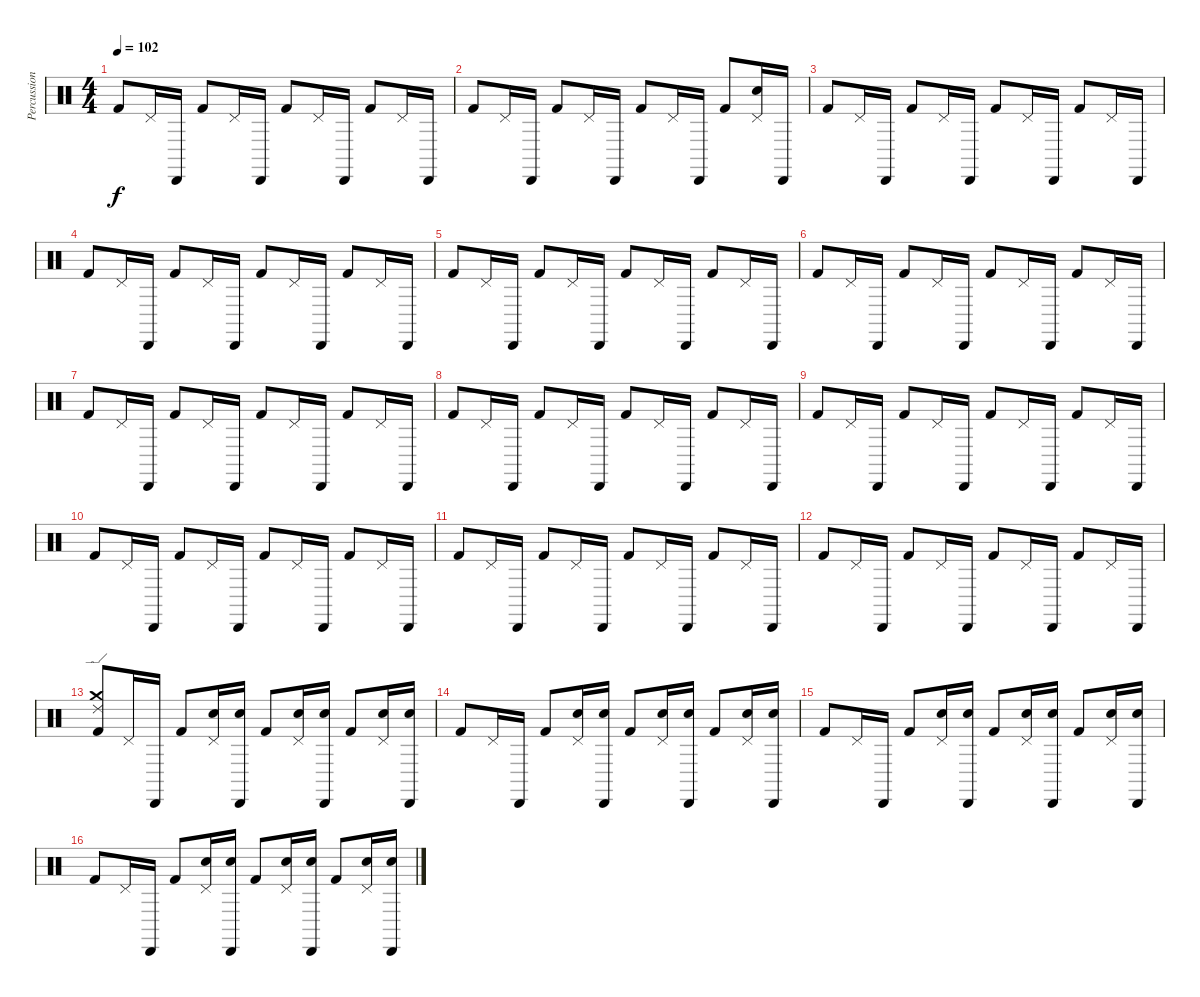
\track ("Percussions" "Percussion") {instrument percussion}
\staff {score}
\articulation defaults
\ts (4 4)
\tempo 102
\clef neutral
\ks c "Kick (hit) 2".8{dy f} "Pedal Hi-Hat (hit)".16 "Cabasa (hit)".16 "Kick (hit) 2".8 "Pedal Hi-Hat (hit)".16 "Cabasa (hit)".16 "Kick (hit) 2".8 "Pedal Hi-Hat (hit)".16 "Cabasa (hit)".16 "Kick (hit) 2".8 "Pedal Hi-Hat (hit)".16 "Cabasa (hit)".16
|
"Kick (hit) 2".8 "Pedal Hi-Hat (hit)".16 "Cabasa (hit)".16 "Kick (hit) 2".8 "Pedal Hi-Hat (hit)".16 "Cabasa (hit)".16 "Kick (hit) 2".8 "Pedal Hi-Hat (hit)".16 "Cabasa (hit)".16 "Kick (hit) 2".8 ("Snare (hit) 2" "Pedal Hi-Hat (hit)").16 "Cabasa (hit)".16 |
"Kick (hit) 2".8 "Pedal Hi-Hat (hit)".16 "Cabasa (hit)".16 "Kick (hit) 2".8 "Pedal Hi-Hat (hit)".16 "Cabasa (hit)".16 "Kick (hit) 2".8 "Pedal Hi-Hat (hit)".16 "Cabasa (hit)".16 "Kick (hit) 2".8 "Pedal Hi-Hat (hit)".16 "Cabasa (hit)".16 |
"Kick (hit) 2".8 "Pedal Hi-Hat (hit)".16 "Cabasa (hit)".16 "Kick (hit) 2".8 "Pedal Hi-Hat (hit)".16 "Cabasa (hit)".16 "Kick (hit) 2".8 "Pedal Hi-Hat (hit)".16 "Cabasa (hit)".16 "Kick (hit) 2".8 "Pedal Hi-Hat (hit)".16 "Cabasa (hit)".16 |
"Kick (hit) 2".8 "Pedal Hi-Hat (hit)".16 "Cabasa (hit)".16 "Kick (hit) 2".8 "Pedal Hi-Hat (hit)".16 "Cabasa (hit)".16 "Kick (hit) 2".8 "Pedal Hi-Hat (hit)".16 "Cabasa (hit)".16 "Kick (hit) 2".8 "Pedal Hi-Hat (hit)".16 "Cabasa (hit)".16 |
"Kick (hit) 2".8 "Pedal Hi-Hat (hit)".16 "Cabasa (hit)".16 "Kick (hit) 2".8 "Pedal Hi-Hat (hit)".16 "Cabasa (hit)".16 "Kick (hit) 2".8 "Pedal Hi-Hat (hit)".16 "Cabasa (hit)".16 "Kick (hit) 2".8 "Pedal Hi-Hat (hit)".16 "Cabasa (hit)".16 |
"Kick (hit) 2".8 "Pedal Hi-Hat (hit)".16 "Cabasa (hit)".16 "Kick (hit) 2".8 "Pedal Hi-Hat (hit)".16 "Cabasa (hit)".16 "Kick (hit) 2".8 "Pedal Hi-Hat (hit)".16 "Cabasa (hit)".16 "Kick (hit) 2".8 "Pedal Hi-Hat (hit)".16 "Cabasa (hit)".16 |
"Kick (hit) 2".8 "Pedal Hi-Hat (hit)".16 "Cabasa (hit)".16 "Kick (hit) 2".8 "Pedal Hi-Hat (hit)".16 "Cabasa (hit)".16 "Kick (hit) 2".8 "Pedal Hi-Hat (hit)".16 "Cabasa (hit)".16 "Kick (hit) 2".8 "Pedal Hi-Hat (hit)".16 "Cabasa (hit)".16 |
"Kick (hit) 2".8 "Pedal Hi-Hat (hit)".16 "Cabasa (hit)".16 "Kick (hit) 2".8 "Pedal Hi-Hat (hit)".16 "Cabasa (hit)".16 "Kick (hit) 2".8 "Pedal Hi-Hat (hit)".16 "Cabasa (hit)".16 "Kick (hit) 2".8 "Pedal Hi-Hat (hit)".16 "Cabasa (hit)".16 |
"Kick (hit) 2".8 "Pedal Hi-Hat (hit)".16 "Cabasa (hit)".16 "Kick (hit) 2".8 "Pedal Hi-Hat (hit)".16 "Cabasa (hit)".16 "Kick (hit) 2".8 "Pedal Hi-Hat (hit)".16 "Cabasa (hit)".16 "Kick (hit) 2".8 "Pedal Hi-Hat (hit)".16 "Cabasa (hit)".16 |
"Kick (hit) 2".8 "Pedal Hi-Hat (hit)".16 "Cabasa (hit)".16 "Kick (hit) 2".8 "Pedal Hi-Hat (hit)".16 "Cabasa (hit)".16 "Kick (hit) 2".8 "Pedal Hi-Hat (hit)".16 "Cabasa (hit)".16 "Kick (hit) 2".8 "Pedal Hi-Hat (hit)".16 "Cabasa (hit)".16 |
"Kick (hit) 2".8 "Pedal Hi-Hat (hit)".16 "Cabasa (hit)".16 "Kick (hit) 2".8 "Pedal Hi-Hat (hit)".16 "Cabasa (hit)".16 "Kick (hit) 2".8 "Pedal Hi-Hat (hit)".16 "Cabasa (hit)".16 "Kick (hit) 2".8 "Pedal Hi-Hat (hit)".16 "Cabasa (hit)".16 |
("Ride (edge) 2" "Crash medium (hit)" "Kick (hit) 2").8 "Pedal Hi-Hat (hit)".16 "Cabasa (hit)".16 "Kick (hit) 2".8 ("Snare (hit) 2" "Pedal Hi-Hat (hit)").16 ("Snare (hit) 2" "Cabasa (hit)").16 "Kick (hit) 2".8 ("Snare (hit) 2" "Pedal Hi-Hat (hit)").16 ("Snare (hit) 2" "Cabasa (hit)").16 "Kick (hit) 2".8 ("Snare (hit) 2" "Pedal Hi-Hat (hit)").16 ("Snare (hit) 2" "Cabasa (hit)").16 |
"Kick (hit) 2".8 "Pedal Hi-Hat (hit)".16 "Cabasa (hit)".16 "Kick (hit) 2".8 ("Snare (hit) 2" "Pedal Hi-Hat (hit)").16 ("Snare (hit) 2" "Cabasa (hit)").16 "Kick (hit) 2".8 ("Snare (hit) 2" "Pedal Hi-Hat (hit)").16 ("Snare (hit) 2" "Cabasa (hit)").16 "Kick (hit) 2".8 ("Snare (hit) 2" "Pedal Hi-Hat (hit)").16 ("Snare (hit) 2" "Cabasa (hit)").16 |
"Kick (hit) 2".8 "Pedal Hi-Hat (hit)".16 "Cabasa (hit)".16 "Kick (hit) 2".8 ("Snare (hit) 2" "Pedal Hi-Hat (hit)").16 ("Snare (hit) 2" "Cabasa (hit)").16 "Kick (hit) 2".8 ("Snare (hit) 2" "Pedal Hi-Hat (hit)").16 ("Snare (hit) 2" "Cabasa (hit)").16 "Kick (hit) 2".8 ("Snare (hit) 2" "Pedal Hi-Hat (hit)").16 ("Snare (hit) 2" "Cabasa (hit)").16 |
"Kick (hit) 2".8 "Pedal Hi-Hat (hit)".16 "Cabasa (hit)".16 "Kick (hit) 2".8 ("Snare (hit) 2" "Pedal Hi-Hat (hit)").16 ("Snare (hit) 2" "Cabasa (hit)").16 "Kick (hit) 2".8 ("Snare (hit) 2" "Pedal Hi-Hat (hit)").16 ("Snare (hit) 2" "Cabasa (hit)").16 "Kick (hit) 2".8 ("Snare (hit) 2" "Pedal Hi-Hat (hit)").16 ("Snare (hit) 2" "Cabasa (hit)").16
